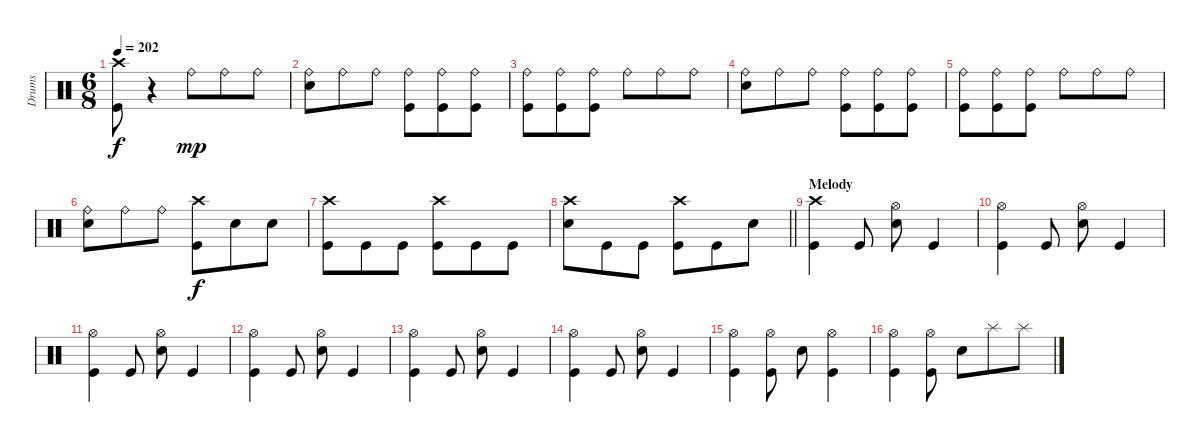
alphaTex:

\track ("Drums" "Drums") {instrument percussion}
\staff {score}
\articulation defaults
\ts (6 8)
\tempo 202
\clef neutral
\ks c
("Crash high (hit)" "Kick (hit)").8{dy f} r.4 "Ride (bell)".8{dy mp} "Ride (bell)".8 "Ride (bell)".8 |
("Ride (bell)" "Electric Snare (hit)").8 "Ride (bell)".8 "Ride (bell)".8 ("Ride (bell)" "Kick (hit)").8 ("Ride (bell)" "Kick (hit)").8 ("Ride (bell)" "Kick (hit)").8 |
("Ride (bell)" "Kick (hit)").8 ("Ride (bell)" "Kick (hit)").8 ("Ride (bell)" "Kick (hit)").8 "Ride (bell)".8 "Ride (bell)".8 "Ride (bell)".8 |
("Ride (bell)" "Electric Snare (hit)").8 "Ride (bell)".8 "Ride (bell)".8 ("Ride (bell)" "Kick (hit)").8 ("Ride (bell)" "Kick (hit)").8 ("Ride (bell)" "Kick (hit)").8 |
("Ride (bell)" "Kick (hit)").8 ("Ride (bell)" "Kick (hit)").8 ("Ride (bell)" "Kick (hit)").8 "Ride (bell)".8 "Ride (bell)".8 "Ride (bell)".8 |
("Ride (bell)" "Electric Snare (hit)").8 "Ride (bell)".8 "Ride (bell)".8 ("Crash high (hit)" "Kick (hit)").8{dy f} "Electric Snare (hit)".8 "Electric Snare (hit)".8 |
("Crash high (hit)" "Kick (hit)").8 "Kick (hit)".8 "Kick (hit)".8 ("Crash high (hit)" "Kick (hit)").8 "Kick (hit)".8 "Kick (hit)".8 |
\barLineRight lightlight
("Crash high (hit)" "Electric Snare (hit)").8 "Kick (hit)".8 "Kick (hit)".8 ("Crash high (hit)" "Kick (hit)").8 "Kick (hit)".8 "Electric Snare (hit)".8 |
\section ("" "Melody")
("Crash high (hit)" "Kick (hit)").4 "Kick (hit)".8 ("Hi-Hat (open)" "Electric Snare (hit)").8 "Kick (hit)".4 |
("Hi-Hat (open)" "Kick (hit)").4 "Kick (hit)".8 ("Hi-Hat (open)" "Electric Snare (hit)").8 "Kick (hit)".4 |
("Hi-Hat (open)" "Kick (hit)").4 "Kick (hit)".8 ("Hi-Hat (open)" "Electric Snare (hit)").8 "Kick (hit)".4 |
("Hi-Hat (open)" "Kick (hit)").4 "Kick (hit)".8 ("Hi-Hat (open)" "Electric Snare (hit)").8 "Kick (hit)".4 |
("Hi-Hat (open)" "Kick (hit)").4 "Kick (hit)".8 ("Hi-Hat (open)" "Electric Snare (hit)").8 "Kick (hit)".4 |
("Hi-Hat (open)" "Kick (hit)").4 "Kick (hit)".8 ("Hi-Hat (open)" "Electric Snare (hit)").8 "Kick (hit)".4 |
("Hi-Hat (open)" "Kick (hit)").4 ("Hi-Hat (open)" "Kick (hit)").8 "Electric Snare (hit)".8 ("Hi-Hat (open)" "Kick (hit)").4 |
("Hi-Hat (open)" "Kick (hit)").4 ("Hi-Hat (open)" "Kick (hit)").8 "Electric Snare (hit)".8 "Splash (hit)".8 "Splash (hit)".8
